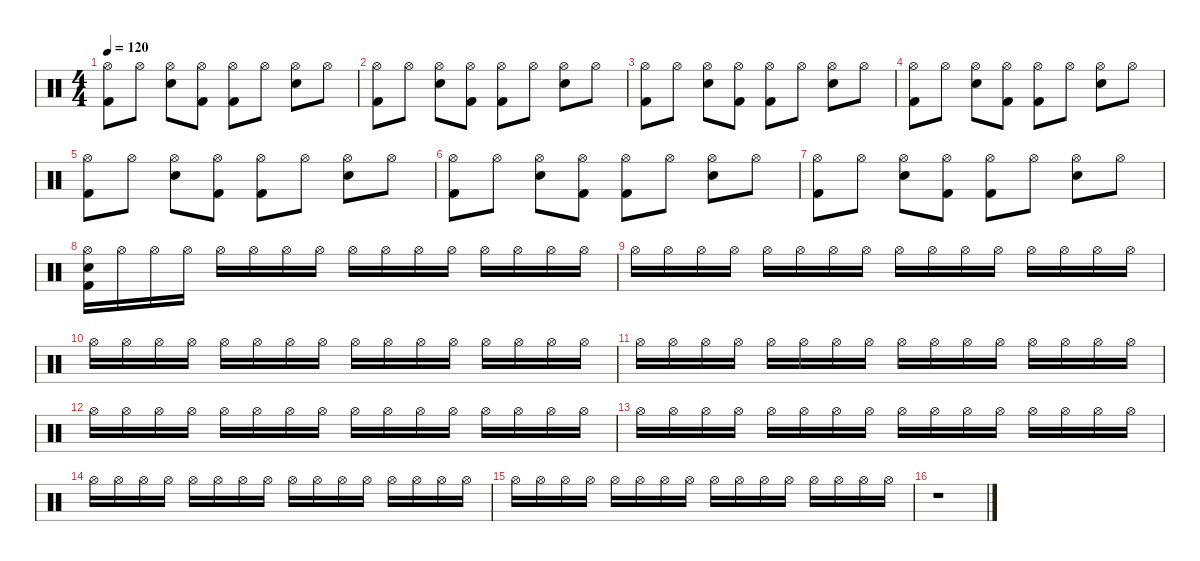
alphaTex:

\defaultSystemsLayout 4
\hideDynamics
\bracketExtendMode nobrackets
\singleTrackTrackNamePolicy hidden
\multiTrackTrackNamePolicy hidden
\firstSystemTrackNameMode fullname
\firstSystemTrackNameOrientation horizontal
\otherSystemsTrackNameOrientation horizontal
\track ("Percussion" "drm.") {instrument percussion}
\staff {score}
\articulation defaults
\ts (4 4)
\tempo 120
\clef neutral
\ks c
("Hi-Hat (open)" "Kick (hit) 2").8{dy f beam Down} "Hi-Hat (open)".8{beam Down} ("Hi-Hat (open)" "Snare (hit) 2").8{beam Down} ("Hi-Hat (open)" "Kick (hit) 2").8{beam Down} ("Hi-Hat (open)" "Kick (hit) 2").8{beam Down} "Hi-Hat (open)".8{beam Down} ("Hi-Hat (open)" "Snare (hit) 2").8{beam Down} "Hi-Hat (open)".8{beam Down} |
("Hi-Hat (open)" "Kick (hit) 2").8{beam Down} "Hi-Hat (open)".8{beam Down} ("Hi-Hat (open)" "Snare (hit) 2").8{beam Down} ("Hi-Hat (open)" "Kick (hit) 2").8{beam Down} ("Hi-Hat (open)" "Kick (hit) 2").8{beam Down} "Hi-Hat (open)".8{beam Down} ("Hi-Hat (open)" "Snare (hit) 2").8{beam Down} "Hi-Hat (open)".8{beam Down} |
("Hi-Hat (open)" "Kick (hit) 2").8{beam Down} "Hi-Hat (open)".8{beam Down} ("Hi-Hat (open)" "Snare (hit) 2").8{beam Down} ("Hi-Hat (open)" "Kick (hit) 2").8{beam Down} ("Hi-Hat (open)" "Kick (hit) 2").8{beam Down} "Hi-Hat (open)".8{beam Down} ("Hi-Hat (open)" "Snare (hit) 2").8{beam Down} "Hi-Hat (open)".8{beam Down} |
("Hi-Hat (open)" "Kick (hit) 2").8{beam Down} "Hi-Hat (open)".8{beam Down} ("Hi-Hat (open)" "Snare (hit) 2").8{beam Down} ("Hi-Hat (open)" "Kick (hit) 2").8{beam Down} ("Hi-Hat (open)" "Kick (hit) 2").8{beam Down} "Hi-Hat (open)".8{beam Down} ("Hi-Hat (open)" "Snare (hit) 2").8{beam Down} "Hi-Hat (open)".8{beam Down} |
("Hi-Hat (open)" "Kick (hit) 2").8{beam Down} "Hi-Hat (open)".8{beam Down} ("Hi-Hat (open)" "Snare (hit) 2").8{beam Down} ("Hi-Hat (open)" "Kick (hit) 2").8{beam Down} ("Hi-Hat (open)" "Kick (hit) 2").8{beam Down} "Hi-Hat (open)".8{beam Down} ("Hi-Hat (open)" "Snare (hit) 2").8{beam Down} "Hi-Hat (open)".8{beam Down} |
("Hi-Hat (open)" "Kick (hit) 2").8{beam Down} "Hi-Hat (open)".8{beam Down} ("Hi-Hat (open)" "Snare (hit) 2").8{beam Down} ("Hi-Hat (open)" "Kick (hit) 2").8{beam Down} ("Hi-Hat (open)" "Kick (hit) 2").8{beam Down} "Hi-Hat (open)".8{beam Down} ("Hi-Hat (open)" "Snare (hit) 2").8{beam Down} "Hi-Hat (open)".8{beam Down} |
("Hi-Hat (open)" "Kick (hit) 2").8{beam Down} "Hi-Hat (open)".8{beam Down} ("Hi-Hat (open)" "Snare (hit) 2").8{beam Down} ("Hi-Hat (open)" "Kick (hit) 2").8{beam Down} ("Hi-Hat (open)" "Kick (hit) 2").8{beam Down} "Hi-Hat (open)".8{beam Down} ("Hi-Hat (open)" "Snare (hit) 2").8{beam Down} "Hi-Hat (open)".8{beam Down} |
("Hi-Hat (open)" "Snare (hit) 2" "Kick (hit) 2").16{beam Down} "Hi-Hat (open)".16{beam Down} "Hi-Hat (open)".16{beam Down} "Hi-Hat (open)".16{beam Down} "Hi-Hat (open)".16{beam Down} "Hi-Hat (open)".16{beam Down} "Hi-Hat (open)".16{beam Down} "Hi-Hat (open)".16{beam Down} "Hi-Hat (open)".16{beam Down} "Hi-Hat (open)".16{beam Down} "Hi-Hat (open)".16{beam Down} "Hi-Hat (open)".16{beam Down} "Hi-Hat (open)".16{beam Down} "Hi-Hat (open)".16{beam Down} "Hi-Hat (open)".16{beam Down} "Hi-Hat (open)".16{beam Down} |
"Hi-Hat (open)".16{beam Down} "Hi-Hat (open)".16{beam Down} "Hi-Hat (open)".16{beam Down} "Hi-Hat (open)".16{beam Down} "Hi-Hat (open)".16{beam Down} "Hi-Hat (open)".16{beam Down} "Hi-Hat (open)".16{beam Down} "Hi-Hat (open)".16{beam Down} "Hi-Hat (open)".16{beam Down} "Hi-Hat (open)".16{beam Down} "Hi-Hat (open)".16{beam Down} "Hi-Hat (open)".16{beam Down} "Hi-Hat (open)".16{beam Down} "Hi-Hat (open)".16{beam Down} "Hi-Hat (open)".16{beam Down} "Hi-Hat (open)".16{beam Down} |
"Hi-Hat (open)".16{beam Down} "Hi-Hat (open)".16{beam Down} "Hi-Hat (open)".16{beam Down} "Hi-Hat (open)".16{beam Down} "Hi-Hat (open)".16{beam Down} "Hi-Hat (open)".16{beam Down} "Hi-Hat (open)".16{beam Down} "Hi-Hat (open)".16{beam Down} "Hi-Hat (open)".16{beam Down} "Hi-Hat (open)".16{beam Down} "Hi-Hat (open)".16{beam Down} "Hi-Hat (open)".16{beam Down} "Hi-Hat (open)".16{beam Down} "Hi-Hat (open)".16{beam Down} "Hi-Hat (open)".16{beam Down} "Hi-Hat (open)".16{beam Down} |
"Hi-Hat (open)".16{beam Down} "Hi-Hat (open)".16{beam Down} "Hi-Hat (open)".16{beam Down} "Hi-Hat (open)".16{beam Down} "Hi-Hat (open)".16{beam Down} "Hi-Hat (open)".16{beam Down} "Hi-Hat (open)".16{beam Down} "Hi-Hat (open)".16{beam Down} "Hi-Hat (open)".16{beam Down} "Hi-Hat (open)".16{beam Down} "Hi-Hat (open)".16{beam Down} "Hi-Hat (open)".16{beam Down} "Hi-Hat (open)".16{beam Down} "Hi-Hat (open)".16{beam Down} "Hi-Hat (open)".16{beam Down} "Hi-Hat (open)".16{beam Down} |
"Hi-Hat (open)".16{beam Down} "Hi-Hat (open)".16{beam Down} "Hi-Hat (open)".16{beam Down} "Hi-Hat (open)".16{beam Down} "Hi-Hat (open)".16{beam Down} "Hi-Hat (open)".16{beam Down} "Hi-Hat (open)".16{beam Down} "Hi-Hat (open)".16{beam Down} "Hi-Hat (open)".16{beam Down} "Hi-Hat (open)".16{beam Down} "Hi-Hat (open)".16{beam Down} "Hi-Hat (open)".16{beam Down} "Hi-Hat (open)".16{beam Down} "Hi-Hat (open)".16{beam Down} "Hi-Hat (open)".16{beam Down} "Hi-Hat (open)".16{beam Down} |
"Hi-Hat (open)".16{beam Down} "Hi-Hat (open)".16{beam Down} "Hi-Hat (open)".16{beam Down} "Hi-Hat (open)".16{beam Down} "Hi-Hat (open)".16{beam Down} "Hi-Hat (open)".16{beam Down} "Hi-Hat (open)".16{beam Down} "Hi-Hat (open)".16{beam Down} "Hi-Hat (open)".16{beam Down} "Hi-Hat (open)".16{beam Down} "Hi-Hat (open)".16{beam Down} "Hi-Hat (open)".16{beam Down} "Hi-Hat (open)".16{beam Down} "Hi-Hat (open)".16{beam Down} "Hi-Hat (open)".16{beam Down} "Hi-Hat (open)".16{beam Down} |
"Hi-Hat (open)".16{beam Down} "Hi-Hat (open)".16{beam Down} "Hi-Hat (open)".16{beam Down} "Hi-Hat (open)".16{beam Down} "Hi-Hat (open)".16{beam Down} "Hi-Hat (open)".16{beam Down} "Hi-Hat (open)".16{beam Down} "Hi-Hat (open)".16{beam Down} "Hi-Hat (open)".16{beam Down} "Hi-Hat (open)".16{beam Down} "Hi-Hat (open)".16{beam Down} "Hi-Hat (open)".16{beam Down} "Hi-Hat (open)".16{beam Down} "Hi-Hat (open)".16{beam Down} "Hi-Hat (open)".16{beam Down} "Hi-Hat (open)".16{beam Down} |
"Hi-Hat (open)".16{beam Down} "Hi-Hat (open)".16{beam Down} "Hi-Hat (open)".16{beam Down} "Hi-Hat (open)".16{beam Down} "Hi-Hat (open)".16{beam Down} "Hi-Hat (open)".16{beam Down} "Hi-Hat (open)".16{beam Down} "Hi-Hat (open)".16{beam Down} "Hi-Hat (open)".16{beam Down} "Hi-Hat (open)".16{beam Down} "Hi-Hat (open)".16{beam Down} "Hi-Hat (open)".16{beam Down} "Hi-Hat (open)".16{beam Down} "Hi-Hat (open)".16{beam Down} "Hi-Hat (open)".16{beam Down} "Hi-Hat (open)".16{beam Down} |
r.1{beam Down}
